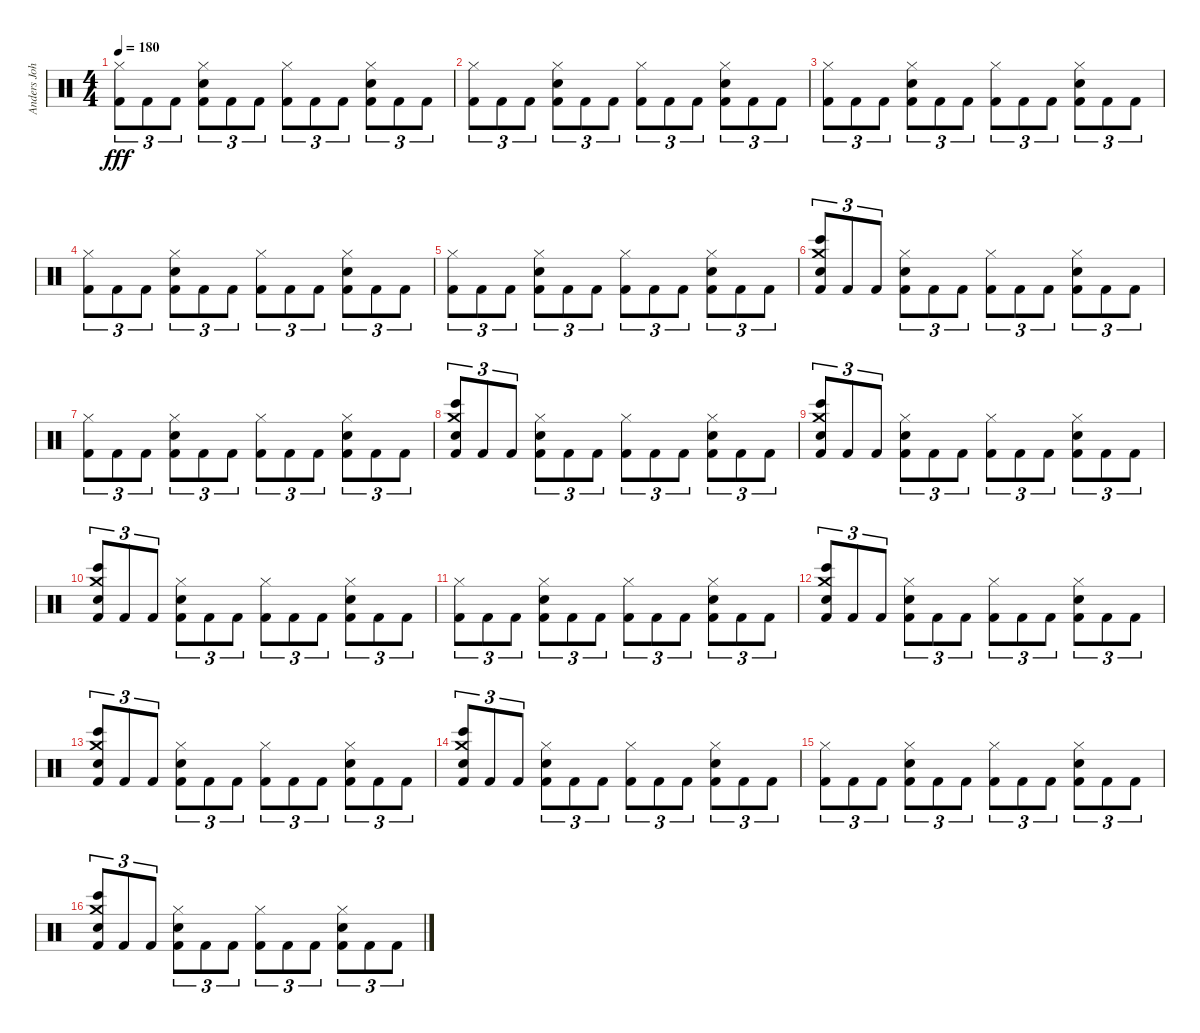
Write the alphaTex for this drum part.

\track ("Anders Johansson" "Anders Joh") {instrument percussion}
\staff {score}
\articulation defaults
\ts (4 4)
\tempo 180
\clef neutral
\ks c
("Hi-Hat (closed)" "Kick (hit) 2").8{tu (3 2) dy fff} "Kick (hit) 2".8{tu (3 2)} "Kick (hit) 2".8{tu (3 2)} ("Hi-Hat (closed)" "Electric Snare (hit)" "Kick (hit) 2").8{tu (3 2)} "Kick (hit) 2".8{tu (3 2)} "Kick (hit) 2".8{tu (3 2)} ("Hi-Hat (closed)" "Kick (hit) 2").8{tu (3 2)} "Kick (hit) 2".8{tu (3 2)} "Kick (hit) 2".8{tu (3 2)} ("Hi-Hat (closed)" "Electric Snare (hit)" "Kick (hit) 2").8{tu (3 2)} "Kick (hit) 2".8{tu (3 2)} "Kick (hit) 2".8{tu (3 2)} |
("Hi-Hat (closed)" "Kick (hit) 2").8{tu (3 2)} "Kick (hit) 2".8{tu (3 2)} "Kick (hit) 2".8{tu (3 2)} ("Hi-Hat (closed)" "Electric Snare (hit)" "Kick (hit) 2").8{tu (3 2)} "Kick (hit) 2".8{tu (3 2)} "Kick (hit) 2".8{tu (3 2)} ("Hi-Hat (closed)" "Kick (hit) 2").8{tu (3 2)} "Kick (hit) 2".8{tu (3 2)} "Kick (hit) 2".8{tu (3 2)} ("Hi-Hat (closed)" "Electric Snare (hit)" "Kick (hit) 2").8{tu (3 2)} "Kick (hit) 2".8{tu (3 2)} "Kick (hit) 2".8{tu (3 2)} |
("Hi-Hat (closed)" "Kick (hit) 2").8{tu (3 2)} "Kick (hit) 2".8{tu (3 2)} "Kick (hit) 2".8{tu (3 2)} ("Hi-Hat (closed)" "Electric Snare (hit)" "Kick (hit) 2").8{tu (3 2)} "Kick (hit) 2".8{tu (3 2)} "Kick (hit) 2".8{tu (3 2)} ("Hi-Hat (closed)" "Kick (hit) 2").8{tu (3 2)} "Kick (hit) 2".8{tu (3 2)} "Kick (hit) 2".8{tu (3 2)} ("Hi-Hat (closed)" "Electric Snare (hit)" "Kick (hit) 2").8{tu (3 2)} "Kick (hit) 2".8{tu (3 2)} "Kick (hit) 2".8{tu (3 2)} |
("Hi-Hat (closed)" "Kick (hit) 2").8{tu (3 2)} "Kick (hit) 2".8{tu (3 2)} "Kick (hit) 2".8{tu (3 2)} ("Hi-Hat (closed)" "Electric Snare (hit)" "Kick (hit) 2").8{tu (3 2)} "Kick (hit) 2".8{tu (3 2)} "Kick (hit) 2".8{tu (3 2)} ("Hi-Hat (closed)" "Kick (hit) 2").8{tu (3 2)} "Kick (hit) 2".8{tu (3 2)} "Kick (hit) 2".8{tu (3 2)} ("Hi-Hat (closed)" "Electric Snare (hit)" "Kick (hit) 2").8{tu (3 2)} "Kick (hit) 2".8{tu (3 2)} "Kick (hit) 2".8{tu (3 2)} |
("Hi-Hat (closed)" "Kick (hit) 2").8{tu (3 2)} "Kick (hit) 2".8{tu (3 2)} "Kick (hit) 2".8{tu (3 2)} ("Hi-Hat (closed)" "Electric Snare (hit)" "Kick (hit) 2").8{tu (3 2)} "Kick (hit) 2".8{tu (3 2)} "Kick (hit) 2".8{tu (3 2)} ("Hi-Hat (closed)" "Kick (hit) 2").8{tu (3 2)} "Kick (hit) 2".8{tu (3 2)} "Kick (hit) 2".8{tu (3 2)} ("Hi-Hat (closed)" "Electric Snare (hit)" "Kick (hit) 2").8{tu (3 2)} "Kick (hit) 2".8{tu (3 2)} "Kick (hit) 2".8{tu (3 2)} |
("Bongo High (hit)" "Crash medium (hit)" "Snare (hit) 2" "Kick (hit) 2").8{tu (3 2)} "Kick (hit) 2".8{tu (3 2)} "Kick (hit) 2".8{tu (3 2)} ("Hi-Hat (closed)" "Electric Snare (hit)" "Kick (hit) 2").8{tu (3 2)} "Kick (hit) 2".8{tu (3 2)} "Kick (hit) 2".8{tu (3 2)} ("Hi-Hat (closed)" "Kick (hit) 2").8{tu (3 2)} "Kick (hit) 2".8{tu (3 2)} "Kick (hit) 2".8{tu (3 2)} ("Hi-Hat (closed)" "Electric Snare (hit)" "Kick (hit) 2").8{tu (3 2)} "Kick (hit) 2".8{tu (3 2)} "Kick (hit) 2".8{tu (3 2)} |
("Hi-Hat (closed)" "Kick (hit) 2").8{tu (3 2)} "Kick (hit) 2".8{tu (3 2)} "Kick (hit) 2".8{tu (3 2)} ("Hi-Hat (closed)" "Electric Snare (hit)" "Kick (hit) 2").8{tu (3 2)} "Kick (hit) 2".8{tu (3 2)} "Kick (hit) 2".8{tu (3 2)} ("Hi-Hat (closed)" "Kick (hit) 2").8{tu (3 2)} "Kick (hit) 2".8{tu (3 2)} "Kick (hit) 2".8{tu (3 2)} ("Hi-Hat (closed)" "Electric Snare (hit)" "Kick (hit) 2").8{tu (3 2)} "Kick (hit) 2".8{tu (3 2)} "Kick (hit) 2".8{tu (3 2)} |
("Bongo High (hit)" "Crash medium (hit)" "Snare (hit) 2" "Kick (hit) 2").8{tu (3 2)} "Kick (hit) 2".8{tu (3 2)} "Kick (hit) 2".8{tu (3 2)} ("Hi-Hat (closed)" "Electric Snare (hit)" "Kick (hit) 2").8{tu (3 2)} "Kick (hit) 2".8{tu (3 2)} "Kick (hit) 2".8{tu (3 2)} ("Hi-Hat (closed)" "Kick (hit) 2").8{tu (3 2)} "Kick (hit) 2".8{tu (3 2)} "Kick (hit) 2".8{tu (3 2)} ("Hi-Hat (closed)" "Electric Snare (hit)" "Kick (hit) 2").8{tu (3 2)} "Kick (hit) 2".8{tu (3 2)} "Kick (hit) 2".8{tu (3 2)} |
("Bongo High (hit)" "Crash medium (hit)" "Snare (hit) 2" "Kick (hit) 2").8{tu (3 2)} "Kick (hit) 2".8{tu (3 2)} "Kick (hit) 2".8{tu (3 2)} ("Hi-Hat (closed)" "Electric Snare (hit)" "Kick (hit) 2").8{tu (3 2)} "Kick (hit) 2".8{tu (3 2)} "Kick (hit) 2".8{tu (3 2)} ("Hi-Hat (closed)" "Kick (hit) 2").8{tu (3 2)} "Kick (hit) 2".8{tu (3 2)} "Kick (hit) 2".8{tu (3 2)} ("Hi-Hat (closed)" "Electric Snare (hit)" "Kick (hit) 2").8{tu (3 2)} "Kick (hit) 2".8{tu (3 2)} "Kick (hit) 2".8{tu (3 2)} |
("Bongo High (hit)" "Crash medium (hit)" "Snare (hit) 2" "Kick (hit) 2").8{tu (3 2)} "Kick (hit) 2".8{tu (3 2)} "Kick (hit) 2".8{tu (3 2)} ("Hi-Hat (closed)" "Electric Snare (hit)" "Kick (hit) 2").8{tu (3 2)} "Kick (hit) 2".8{tu (3 2)} "Kick (hit) 2".8{tu (3 2)} ("Hi-Hat (closed)" "Kick (hit) 2").8{tu (3 2)} "Kick (hit) 2".8{tu (3 2)} "Kick (hit) 2".8{tu (3 2)} ("Hi-Hat (closed)" "Electric Snare (hit)" "Kick (hit) 2").8{tu (3 2)} "Kick (hit) 2".8{tu (3 2)} "Kick (hit) 2".8{tu (3 2)} |
("Hi-Hat (closed)" "Kick (hit) 2").8{tu (3 2)} "Kick (hit) 2".8{tu (3 2)} "Kick (hit) 2".8{tu (3 2)} ("Hi-Hat (closed)" "Electric Snare (hit)" "Kick (hit) 2").8{tu (3 2)} "Kick (hit) 2".8{tu (3 2)} "Kick (hit) 2".8{tu (3 2)} ("Hi-Hat (closed)" "Kick (hit) 2").8{tu (3 2)} "Kick (hit) 2".8{tu (3 2)} "Kick (hit) 2".8{tu (3 2)} ("Hi-Hat (closed)" "Electric Snare (hit)" "Kick (hit) 2").8{tu (3 2)} "Kick (hit) 2".8{tu (3 2)} "Kick (hit) 2".8{tu (3 2)} |
("Bongo High (hit)" "Crash medium (hit)" "Snare (hit) 2" "Kick (hit) 2").8{tu (3 2)} "Kick (hit) 2".8{tu (3 2)} "Kick (hit) 2".8{tu (3 2)} ("Hi-Hat (closed)" "Electric Snare (hit)" "Kick (hit) 2").8{tu (3 2)} "Kick (hit) 2".8{tu (3 2)} "Kick (hit) 2".8{tu (3 2)} ("Hi-Hat (closed)" "Kick (hit) 2").8{tu (3 2)} "Kick (hit) 2".8{tu (3 2)} "Kick (hit) 2".8{tu (3 2)} ("Hi-Hat (closed)" "Electric Snare (hit)" "Kick (hit) 2").8{tu (3 2)} "Kick (hit) 2".8{tu (3 2)} "Kick (hit) 2".8{tu (3 2)} |
("Bongo High (hit)" "Crash medium (hit)" "Snare (hit) 2" "Kick (hit) 2").8{tu (3 2)} "Kick (hit) 2".8{tu (3 2)} "Kick (hit) 2".8{tu (3 2)} ("Hi-Hat (closed)" "Electric Snare (hit)" "Kick (hit) 2").8{tu (3 2)} "Kick (hit) 2".8{tu (3 2)} "Kick (hit) 2".8{tu (3 2)} ("Hi-Hat (closed)" "Kick (hit) 2").8{tu (3 2)} "Kick (hit) 2".8{tu (3 2)} "Kick (hit) 2".8{tu (3 2)} ("Hi-Hat (closed)" "Electric Snare (hit)" "Kick (hit) 2").8{tu (3 2)} "Kick (hit) 2".8{tu (3 2)} "Kick (hit) 2".8{tu (3 2)} |
("Bongo High (hit)" "Crash medium (hit)" "Snare (hit) 2" "Kick (hit) 2").8{tu (3 2)} "Kick (hit) 2".8{tu (3 2)} "Kick (hit) 2".8{tu (3 2)} ("Hi-Hat (closed)" "Electric Snare (hit)" "Kick (hit) 2").8{tu (3 2)} "Kick (hit) 2".8{tu (3 2)} "Kick (hit) 2".8{tu (3 2)} ("Hi-Hat (closed)" "Kick (hit) 2").8{tu (3 2)} "Kick (hit) 2".8{tu (3 2)} "Kick (hit) 2".8{tu (3 2)} ("Hi-Hat (closed)" "Electric Snare (hit)" "Kick (hit) 2").8{tu (3 2)} "Kick (hit) 2".8{tu (3 2)} "Kick (hit) 2".8{tu (3 2)} |
("Hi-Hat (closed)" "Kick (hit) 2").8{tu (3 2)} "Kick (hit) 2".8{tu (3 2)} "Kick (hit) 2".8{tu (3 2)} ("Hi-Hat (closed)" "Electric Snare (hit)" "Kick (hit) 2").8{tu (3 2)} "Kick (hit) 2".8{tu (3 2)} "Kick (hit) 2".8{tu (3 2)} ("Hi-Hat (closed)" "Kick (hit) 2").8{tu (3 2)} "Kick (hit) 2".8{tu (3 2)} "Kick (hit) 2".8{tu (3 2)} ("Hi-Hat (closed)" "Electric Snare (hit)" "Kick (hit) 2").8{tu (3 2)} "Kick (hit) 2".8{tu (3 2)} "Kick (hit) 2".8{tu (3 2)} |
("Bongo High (hit)" "Crash medium (hit)" "Snare (hit) 2" "Kick (hit) 2").8{tu (3 2)} "Kick (hit) 2".8{tu (3 2)} "Kick (hit) 2".8{tu (3 2)} ("Hi-Hat (closed)" "Electric Snare (hit)" "Kick (hit) 2").8{tu (3 2)} "Kick (hit) 2".8{tu (3 2)} "Kick (hit) 2".8{tu (3 2)} ("Hi-Hat (closed)" "Kick (hit) 2").8{tu (3 2)} "Kick (hit) 2".8{tu (3 2)} "Kick (hit) 2".8{tu (3 2)} ("Hi-Hat (closed)" "Electric Snare (hit)" "Kick (hit) 2").8{tu (3 2)} "Kick (hit) 2".8{tu (3 2)} "Kick (hit) 2".8{tu (3 2)}
